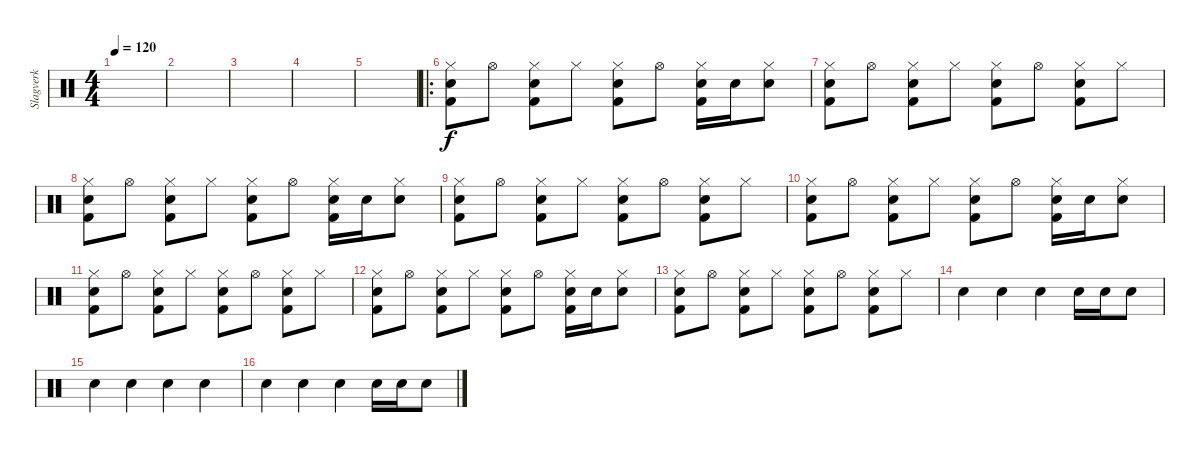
\track ("Slagverk" "Slagverk") {instrument percussion}
\staff {score}
\articulation defaults
\ts (4 4)
\tempo 120
\clef neutral
\ks c
|
|
|
|
|
\ro
("Kick (hit) 2" "Hi-Hat (closed)" "Snare (hit) 2").8 "Hi-Hat (open)".8 ("Kick (hit) 2" "Hi-Hat (closed)" "Snare (hit) 2").8 "Hi-Hat (closed)".8 ("Kick (hit) 2" "Hi-Hat (closed)" "Snare (hit) 2").8 "Hi-Hat (open)".8 ("Kick (hit) 2" "Hi-Hat (closed)" "Snare (hit) 2").16 "Snare (hit) 2".16 ("Hi-Hat (closed)" "Snare (hit) 2").8 |
("Kick (hit) 2" "Hi-Hat (closed)" "Snare (hit) 2").8 "Hi-Hat (open)".8 ("Kick (hit) 2" "Hi-Hat (closed)" "Snare (hit) 2").8 "Hi-Hat (closed)".8 ("Kick (hit) 2" "Hi-Hat (closed)" "Snare (hit) 2").8 "Hi-Hat (open)".8 ("Kick (hit) 2" "Hi-Hat (closed)" "Snare (hit) 2").8 "Hi-Hat (closed)".8 |
("Kick (hit) 2" "Hi-Hat (closed)" "Snare (hit) 2").8 "Hi-Hat (open)".8 ("Kick (hit) 2" "Hi-Hat (closed)" "Snare (hit) 2").8 "Hi-Hat (closed)".8 ("Kick (hit) 2" "Hi-Hat (closed)" "Snare (hit) 2").8 "Hi-Hat (open)".8 ("Kick (hit) 2" "Hi-Hat (closed)" "Snare (hit) 2").16 "Snare (hit) 2".16 ("Hi-Hat (closed)" "Snare (hit) 2").8 |
("Kick (hit) 2" "Hi-Hat (closed)" "Snare (hit) 2").8 "Hi-Hat (open)".8 ("Kick (hit) 2" "Hi-Hat (closed)" "Snare (hit) 2").8 "Hi-Hat (closed)".8 ("Kick (hit) 2" "Hi-Hat (closed)" "Snare (hit) 2").8 "Hi-Hat (open)".8 ("Kick (hit) 2" "Hi-Hat (closed)" "Snare (hit) 2").8 "Hi-Hat (closed)".8 |
("Kick (hit) 2" "Hi-Hat (closed)" "Snare (hit) 2").8 "Hi-Hat (open)".8 ("Kick (hit) 2" "Hi-Hat (closed)" "Snare (hit) 2").8 "Hi-Hat (closed)".8 ("Kick (hit) 2" "Hi-Hat (closed)" "Snare (hit) 2").8 "Hi-Hat (open)".8 ("Kick (hit) 2" "Hi-Hat (closed)" "Snare (hit) 2").16 "Snare (hit) 2".16 ("Hi-Hat (closed)" "Snare (hit) 2").8 |
("Kick (hit) 2" "Hi-Hat (closed)" "Snare (hit) 2").8 "Hi-Hat (open)".8 ("Kick (hit) 2" "Hi-Hat (closed)" "Snare (hit) 2").8 "Hi-Hat (closed)".8 ("Kick (hit) 2" "Hi-Hat (closed)" "Snare (hit) 2").8 "Hi-Hat (open)".8 ("Kick (hit) 2" "Hi-Hat (closed)" "Snare (hit) 2").8 "Hi-Hat (closed)".8 |
("Kick (hit) 2" "Hi-Hat (closed)" "Snare (hit) 2").8 "Hi-Hat (open)".8 ("Kick (hit) 2" "Hi-Hat (closed)" "Snare (hit) 2").8 "Hi-Hat (closed)".8 ("Kick (hit) 2" "Hi-Hat (closed)" "Snare (hit) 2").8 "Hi-Hat (open)".8 ("Kick (hit) 2" "Hi-Hat (closed)" "Snare (hit) 2").16 "Snare (hit) 2".16 ("Hi-Hat (closed)" "Snare (hit) 2").8 |
("Kick (hit) 2" "Hi-Hat (closed)" "Snare (hit) 2").8 "Hi-Hat (open)".8 ("Kick (hit) 2" "Hi-Hat (closed)" "Snare (hit) 2").8 "Hi-Hat (closed)".8 ("Kick (hit) 2" "Hi-Hat (closed)" "Snare (hit) 2").8 "Hi-Hat (open)".8 ("Kick (hit) 2" "Hi-Hat (closed)" "Snare (hit) 2").8 "Hi-Hat (closed)".8 |
"Snare (hit) 2".4 "Snare (hit) 2".4 "Snare (hit) 2".4 "Snare (hit) 2".16 "Snare (hit) 2".16 "Snare (hit) 2".8 |
"Snare (hit) 2".4 "Snare (hit) 2".4 "Snare (hit) 2".4 "Snare (hit) 2".4 |
"Snare (hit) 2".4 "Snare (hit) 2".4 "Snare (hit) 2".4 "Snare (hit) 2".16 "Snare (hit) 2".16 "Snare (hit) 2".8
